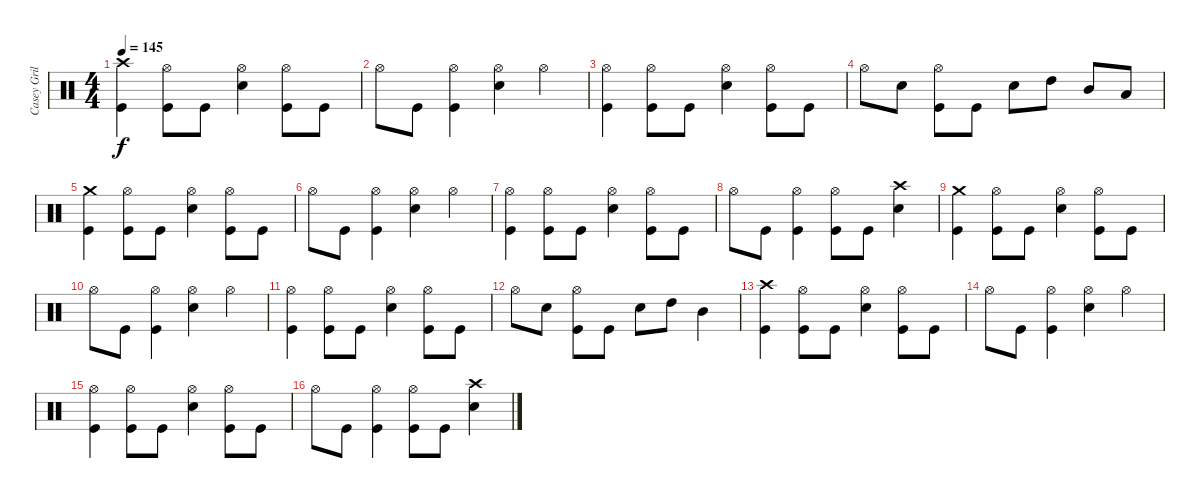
\track ("Casey Grillo" "Casey Gril") {instrument percussion}
\staff {score}
\articulation defaults
\ts (4 4)
\tempo 145
\clef neutral
\ks c
("Crash high (hit)" "Kick (hit)").4{dy f} ("Hi-Hat (open)" "Kick (hit)").8 "Kick (hit)".8 ("Hi-Hat (open)" "Snare (hit) 2").4 ("Hi-Hat (open)" "Kick (hit)").8 "Kick (hit)".8 |
"Hi-Hat (open)".8 "Kick (hit)".8 ("Hi-Hat (open)" "Kick (hit)").4 ("Hi-Hat (open)" "Snare (hit) 2").4 "Hi-Hat (open)".4 |
("Hi-Hat (open)" "Kick (hit)").4 ("Hi-Hat (open)" "Kick (hit)").8 "Kick (hit)".8 ("Hi-Hat (open)" "Snare (hit) 2").4 ("Hi-Hat (open)" "Kick (hit)").8 "Kick (hit)".8 |
"Hi-Hat (open)".8 "Snare (hit) 2".8 ("Hi-Hat (open)" "Kick (hit)").8 "Kick (hit)".8 "Snare (hit) 2".8 "High Tom (hit)".8 "Mid Tom (hit)".8 "Low Tom (hit)".8 |
("Crash medium (hit)" "Kick (hit)").4 ("Hi-Hat (open)" "Kick (hit)").8 "Kick (hit)".8 ("Hi-Hat (open)" "Snare (hit) 2").4 ("Hi-Hat (open)" "Kick (hit)").8 "Kick (hit)".8 |
"Hi-Hat (open)".8 "Kick (hit)".8 ("Hi-Hat (open)" "Kick (hit)").4 ("Hi-Hat (open)" "Snare (hit) 2").4 "Hi-Hat (open)".4 |
("Hi-Hat (open)" "Kick (hit)").4 ("Hi-Hat (open)" "Kick (hit)").8 "Kick (hit)".8 ("Hi-Hat (open)" "Snare (hit) 2").4 ("Hi-Hat (open)" "Kick (hit)").8 "Kick (hit)".8 |
"Hi-Hat (open)".8 "Kick (hit)".8 ("Hi-Hat (open)" "Kick (hit)").4 ("Hi-Hat (open)" "Kick (hit)").8 "Kick (hit)".8 ("Crash high (hit)" "Snare (hit) 2").4 |
("Crash medium (hit)" "Kick (hit)").4 ("Hi-Hat (open)" "Kick (hit)").8 "Kick (hit)".8 ("Hi-Hat (open)" "Snare (hit) 2").4 ("Hi-Hat (open)" "Kick (hit)").8 "Kick (hit)".8 |
"Hi-Hat (open)".8 "Kick (hit)".8 ("Hi-Hat (open)" "Kick (hit)").4 ("Hi-Hat (open)" "Snare (hit) 2").4 "Hi-Hat (open)".4 |
("Hi-Hat (open)" "Kick (hit)").4 ("Hi-Hat (open)" "Kick (hit)").8 "Kick (hit)".8 ("Hi-Hat (open)" "Snare (hit) 2").4 ("Hi-Hat (open)" "Kick (hit)").8 "Kick (hit)".8 |
"Hi-Hat (open)".8 "Snare (hit) 2".8 ("Hi-Hat (open)" "Kick (hit)").8 "Kick (hit)".8 "Snare (hit) 2".8 "High Tom (hit)".8 "Mid Tom (hit)".4 |
("Crash high (hit)" "Kick (hit)").4 ("Hi-Hat (open)" "Kick (hit)").8 "Kick (hit)".8 ("Hi-Hat (open)" "Snare (hit) 2").4 ("Hi-Hat (open)" "Kick (hit)").8 "Kick (hit)".8 |
"Hi-Hat (open)".8 "Kick (hit)".8 ("Hi-Hat (open)" "Kick (hit)").4 ("Hi-Hat (open)" "Snare (hit) 2").4 "Hi-Hat (open)".4 |
("Hi-Hat (open)" "Kick (hit)").4 ("Hi-Hat (open)" "Kick (hit)").8 "Kick (hit)".8 ("Hi-Hat (open)" "Snare (hit) 2").4 ("Hi-Hat (open)" "Kick (hit)").8 "Kick (hit)".8 |
"Hi-Hat (open)".8 "Kick (hit)".8 ("Hi-Hat (open)" "Kick (hit)").4 ("Hi-Hat (open)" "Kick (hit)").8 "Kick (hit)".8 ("Crash high (hit)" "Snare (hit) 2").4
